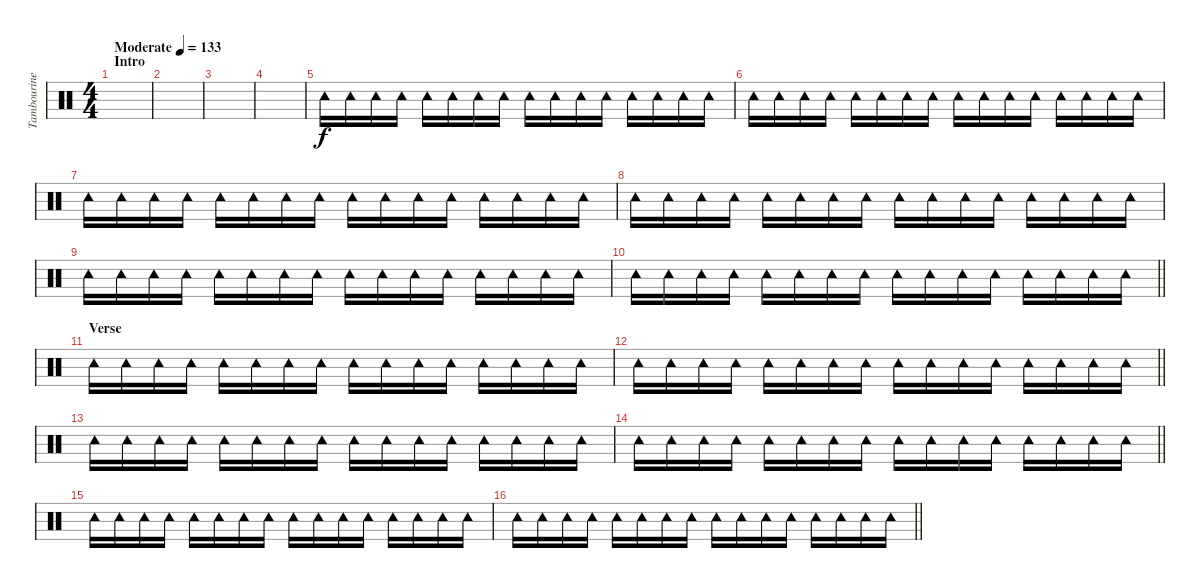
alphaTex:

\track ("Tambourine" "Tambourine") {instrument percussion}
\staff {score}
\articulation defaults
\ts (4 4)
\section ("" "Intro")
\tempo (133 "Moderate")
\clef neutral
\ks c
|
|
|
|
"Tambourine (hit)".16 "Tambourine (hit)".16 "Tambourine (hit)".16 "Tambourine (hit)".16 "Tambourine (hit)".16 "Tambourine (hit)".16 "Tambourine (hit)".16 "Tambourine (hit)".16 "Tambourine (hit)".16 "Tambourine (hit)".16 "Tambourine (hit)".16 "Tambourine (hit)".16 "Tambourine (hit)".16 "Tambourine (hit)".16 "Tambourine (hit)".16 "Tambourine (hit)".16 |
"Tambourine (hit)".16 "Tambourine (hit)".16 "Tambourine (hit)".16 "Tambourine (hit)".16 "Tambourine (hit)".16 "Tambourine (hit)".16 "Tambourine (hit)".16 "Tambourine (hit)".16 "Tambourine (hit)".16 "Tambourine (hit)".16 "Tambourine (hit)".16 "Tambourine (hit)".16 "Tambourine (hit)".16 "Tambourine (hit)".16 "Tambourine (hit)".16 "Tambourine (hit)".16 |
"Tambourine (hit)".16 "Tambourine (hit)".16 "Tambourine (hit)".16 "Tambourine (hit)".16 "Tambourine (hit)".16 "Tambourine (hit)".16 "Tambourine (hit)".16 "Tambourine (hit)".16 "Tambourine (hit)".16 "Tambourine (hit)".16 "Tambourine (hit)".16 "Tambourine (hit)".16 "Tambourine (hit)".16 "Tambourine (hit)".16 "Tambourine (hit)".16 "Tambourine (hit)".16 |
"Tambourine (hit)".16 "Tambourine (hit)".16 "Tambourine (hit)".16 "Tambourine (hit)".16 "Tambourine (hit)".16 "Tambourine (hit)".16 "Tambourine (hit)".16 "Tambourine (hit)".16 "Tambourine (hit)".16 "Tambourine (hit)".16 "Tambourine (hit)".16 "Tambourine (hit)".16 "Tambourine (hit)".16 "Tambourine (hit)".16 "Tambourine (hit)".16 "Tambourine (hit)".16 |
"Tambourine (hit)".16 "Tambourine (hit)".16 "Tambourine (hit)".16 "Tambourine (hit)".16 "Tambourine (hit)".16 "Tambourine (hit)".16 "Tambourine (hit)".16 "Tambourine (hit)".16 "Tambourine (hit)".16 "Tambourine (hit)".16 "Tambourine (hit)".16 "Tambourine (hit)".16 "Tambourine (hit)".16 "Tambourine (hit)".16 "Tambourine (hit)".16 "Tambourine (hit)".16 |
\barLineRight lightlight "Tambourine (hit)".16 "Tambourine (hit)".16 "Tambourine (hit)".16 "Tambourine (hit)".16 "Tambourine (hit)".16 "Tambourine (hit)".16 "Tambourine (hit)".16 "Tambourine (hit)".16 "Tambourine (hit)".16 "Tambourine (hit)".16 "Tambourine (hit)".16 "Tambourine (hit)".16 "Tambourine (hit)".16 "Tambourine (hit)".16 "Tambourine (hit)".16 "Tambourine (hit)".16
|
\section ("" "Verse")
"Tambourine (hit)".16 "Tambourine (hit)".16 "Tambourine (hit)".16 "Tambourine (hit)".16 "Tambourine (hit)".16 "Tambourine (hit)".16 "Tambourine (hit)".16 "Tambourine (hit)".16 "Tambourine (hit)".16 "Tambourine (hit)".16 "Tambourine (hit)".16 "Tambourine (hit)".16 "Tambourine (hit)".16 "Tambourine (hit)".16 "Tambourine (hit)".16 "Tambourine (hit)".16 |
\barLineRight lightlight "Tambourine (hit)".16 "Tambourine (hit)".16 "Tambourine (hit)".16 "Tambourine (hit)".16 "Tambourine (hit)".16 "Tambourine (hit)".16 "Tambourine (hit)".16 "Tambourine (hit)".16 "Tambourine (hit)".16 "Tambourine (hit)".16 "Tambourine (hit)".16 "Tambourine (hit)".16 "Tambourine (hit)".16 "Tambourine (hit)".16 "Tambourine (hit)".16 "Tambourine (hit)".16
|
"Tambourine (hit)".16 "Tambourine (hit)".16 "Tambourine (hit)".16 "Tambourine (hit)".16 "Tambourine (hit)".16 "Tambourine (hit)".16 "Tambourine (hit)".16 "Tambourine (hit)".16 "Tambourine (hit)".16 "Tambourine (hit)".16 "Tambourine (hit)".16 "Tambourine (hit)".16 "Tambourine (hit)".16 "Tambourine (hit)".16 "Tambourine (hit)".16 "Tambourine (hit)".16 |
\barLineRight lightlight "Tambourine (hit)".16 "Tambourine (hit)".16 "Tambourine (hit)".16 "Tambourine (hit)".16 "Tambourine (hit)".16 "Tambourine (hit)".16 "Tambourine (hit)".16 "Tambourine (hit)".16 "Tambourine (hit)".16 "Tambourine (hit)".16 "Tambourine (hit)".16 "Tambourine (hit)".16 "Tambourine (hit)".16 "Tambourine (hit)".16 "Tambourine (hit)".16 "Tambourine (hit)".16
|
"Tambourine (hit)".16 "Tambourine (hit)".16 "Tambourine (hit)".16 "Tambourine (hit)".16 "Tambourine (hit)".16 "Tambourine (hit)".16 "Tambourine (hit)".16 "Tambourine (hit)".16 "Tambourine (hit)".16 "Tambourine (hit)".16 "Tambourine (hit)".16 "Tambourine (hit)".16 "Tambourine (hit)".16 "Tambourine (hit)".16 "Tambourine (hit)".16 "Tambourine (hit)".16 |
\barLineRight lightlight "Tambourine (hit)".16 "Tambourine (hit)".16 "Tambourine (hit)".16 "Tambourine (hit)".16 "Tambourine (hit)".16 "Tambourine (hit)".16 "Tambourine (hit)".16 "Tambourine (hit)".16 "Tambourine (hit)".16 "Tambourine (hit)".16 "Tambourine (hit)".16 "Tambourine (hit)".16 "Tambourine (hit)".16 "Tambourine (hit)".16 "Tambourine (hit)".16 "Tambourine (hit)".16
